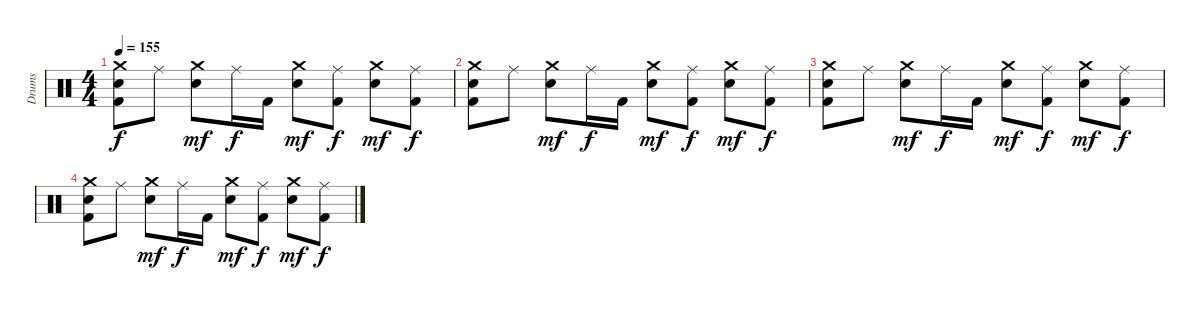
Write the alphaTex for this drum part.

\track ("Drums" "Drums") {instrument percussion}
\staff {score}
\articulation defaults
\ts (4 4)
\tempo 155
\clef neutral
\ks c
("Crash medium (hit)" "Snare (hit) 2" "Kick (hit) 2").8{dy f} "Ride (middle)".8 ("Crash medium (hit)" "Snare (hit) 2").8{dy mf} "Ride (middle)".16{dy f} "Kick (hit) 2".16 ("Crash medium (hit)" "Snare (hit) 2").8{dy mf} ("Ride (middle)" "Kick (hit) 2").8{dy f} ("Crash medium (hit)" "Snare (hit) 2").8{dy mf} ("Ride (middle)" "Kick (hit) 2").8{dy f} |
("Crash medium (hit)" "Snare (hit) 2" "Kick (hit) 2").8 "Ride (middle)".8 ("Crash medium (hit)" "Snare (hit) 2").8{dy mf} "Ride (middle)".16{dy f} "Kick (hit) 2".16 ("Crash medium (hit)" "Snare (hit) 2").8{dy mf} ("Ride (middle)" "Kick (hit) 2").8{dy f} ("Crash medium (hit)" "Snare (hit) 2").8{dy mf} ("Ride (middle)" "Kick (hit) 2").8{dy f} |
("Crash medium (hit)" "Snare (hit) 2" "Kick (hit) 2").8 "Ride (middle)".8 ("Crash medium (hit)" "Snare (hit) 2").8{dy mf} "Ride (middle)".16{dy f} "Kick (hit) 2".16 ("Crash medium (hit)" "Snare (hit) 2").8{dy mf} ("Ride (middle)" "Kick (hit) 2").8{dy f} ("Crash medium (hit)" "Snare (hit) 2").8{dy mf} ("Ride (middle)" "Kick (hit) 2").8{dy f} |
("Crash medium (hit)" "Snare (hit) 2" "Kick (hit) 2").8 "Ride (middle)".8 ("Crash medium (hit)" "Snare (hit) 2").8{dy mf} "Ride (middle)".16{dy f} "Kick (hit) 2".16 ("Crash medium (hit)" "Snare (hit) 2").8{dy mf} ("Ride (middle)" "Kick (hit) 2").8{dy f} ("Crash medium (hit)" "Snare (hit) 2").8{dy mf} ("Ride (middle)" "Kick (hit) 2").8{dy f}
